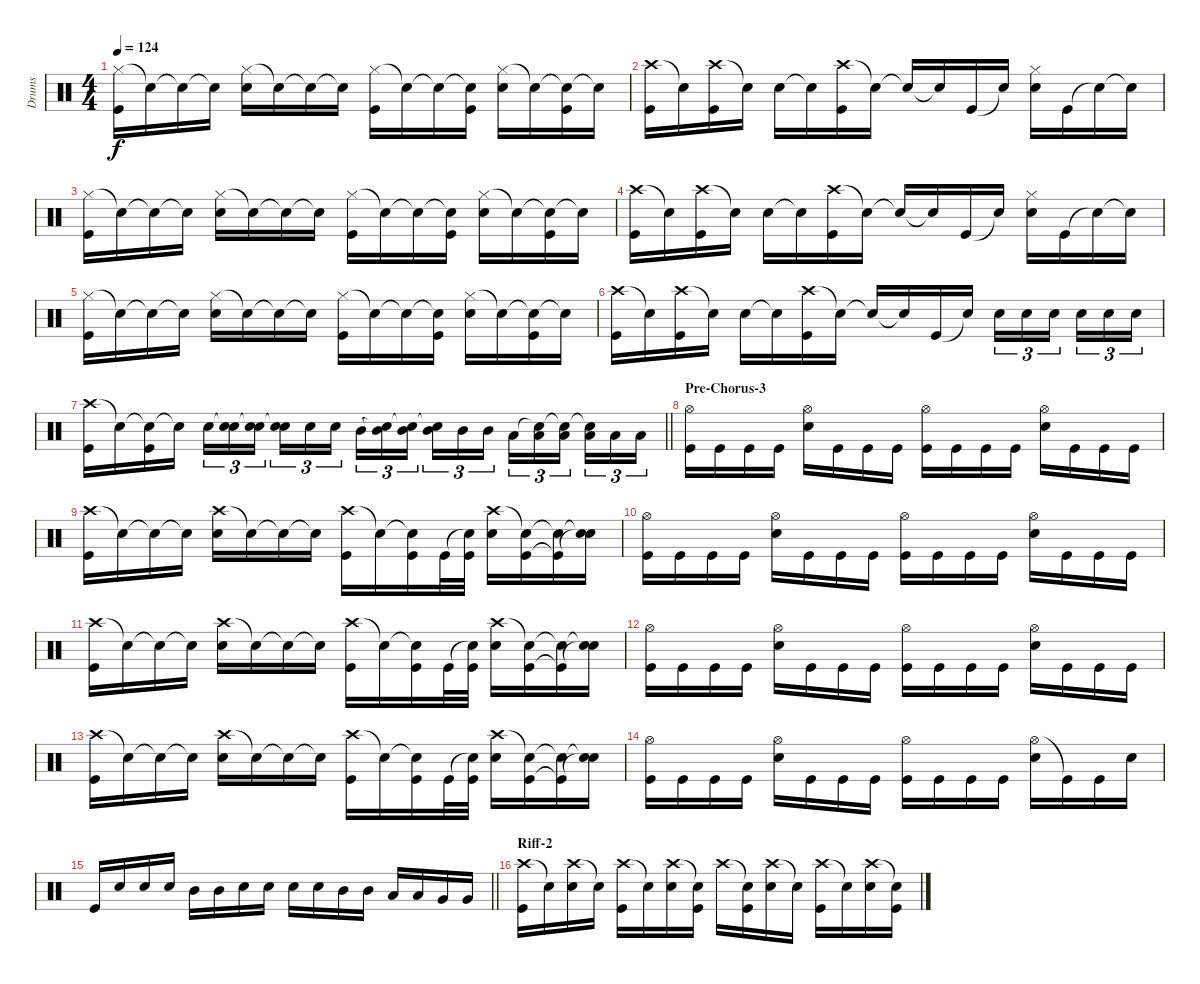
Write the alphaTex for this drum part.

\track ("Drums" "Drums") {instrument percussion}
\staff {score}
\articulation defaults
\ts (4 4)
\tempo 124
\clef neutral
\ks c
("Hi-Hat (closed)" "Kick (hit)").16{dy f} "Snare (hit)"{t}.16 "Snare (hit)"{t}.16 "Snare (hit)"{t}.16 ("Hi-Hat (closed)" "Electric Snare (hit)").16 "Snare (hit)"{t}.16 "Snare (hit)"{t}.16 "Snare (hit)"{t}.16 ("Hi-Hat (closed)" "Kick (hit)").16 "Snare (hit)"{t}.16 "Snare (hit)"{t}.16 ("Snare (hit)"{t} "Kick (hit)").16 ("Hi-Hat (closed)" "Electric Snare (hit)").16 "Snare (hit)"{t}.16 ("Snare (hit)"{t} "Kick (hit)").16 "Snare (hit)"{t}.16 |
("Crash high (hit)" "Kick (hit)").16 "Snare (hit)"{t}.16 ("Crash high (hit)" "Kick (hit)").16 "Snare (hit)"{t}.16 "Electric Snare (hit)".16 "Snare (hit)"{t}.16 ("Crash high (hit)" "Kick (hit)").16 "Snare (hit)"{t}.16 "Snare (hit)"{t}.16 "Snare (hit)"{t}.16 "Kick (hit)".16 "Snare (hit)"{t}.16 ("Hi-Hat (closed)" "Electric Snare (hit)").16 "Kick (hit)".16 "Snare (hit)"{t}.16 "Snare (hit)"{t}.16 |
("Hi-Hat (closed)" "Kick (hit)").16 "Snare (hit)"{t}.16 "Snare (hit)"{t}.16 "Snare (hit)"{t}.16 ("Hi-Hat (closed)" "Electric Snare (hit)").16 "Snare (hit)"{t}.16 "Snare (hit)"{t}.16 "Snare (hit)"{t}.16 ("Hi-Hat (closed)" "Kick (hit)").16 "Snare (hit)"{t}.16 "Snare (hit)"{t}.16 ("Snare (hit)"{t} "Kick (hit)").16 ("Hi-Hat (closed)" "Electric Snare (hit)").16 "Snare (hit)"{t}.16 ("Snare (hit)"{t} "Kick (hit)").16 "Snare (hit)"{t}.16 |
("Crash high (hit)" "Kick (hit)").16 "Snare (hit)"{t}.16 ("Crash high (hit)" "Kick (hit)").16 "Snare (hit)"{t}.16 "Electric Snare (hit)".16 "Snare (hit)"{t}.16 ("Crash high (hit)" "Kick (hit)").16 "Snare (hit)"{t}.16 "Snare (hit)"{t}.16 "Snare (hit)"{t}.16 "Kick (hit)".16 "Snare (hit)"{t}.16 ("Hi-Hat (closed)" "Electric Snare (hit)").16 "Kick (hit)".16 "Snare (hit)"{t}.16 "Snare (hit)"{t}.16 |
("Hi-Hat (closed)" "Kick (hit)").16 "Snare (hit)"{t}.16 "Snare (hit)"{t}.16 "Snare (hit)"{t}.16 ("Hi-Hat (closed)" "Electric Snare (hit)").16 "Snare (hit)"{t}.16 "Snare (hit)"{t}.16 "Snare (hit)"{t}.16 ("Hi-Hat (closed)" "Kick (hit)").16 "Snare (hit)"{t}.16 "Snare (hit)"{t}.16 ("Snare (hit)"{t} "Kick (hit)").16 ("Hi-Hat (closed)" "Electric Snare (hit)").16 "Snare (hit)"{t}.16 ("Snare (hit)"{t} "Kick (hit)").16 "Snare (hit)"{t}.16 |
("Crash high (hit)" "Kick (hit)").16 "Snare (hit)"{t}.16 ("Crash high (hit)" "Kick (hit)").16 "Snare (hit)"{t}.16 "Electric Snare (hit)".16 "Snare (hit)"{t}.16 ("Crash high (hit)" "Kick (hit)").16 "Snare (hit)"{t}.16 "Snare (hit)"{t}.16 "Snare (hit)"{t}.16 "Kick (hit)".16 "Snare (hit)"{t}.16 "Electric Snare (hit)".16{tu (3 2)} "Electric Snare (hit)".16{tu (3 2)} "Electric Snare (hit)".16{tu (3 2)} "Electric Snare (hit)".16{tu (3 2)} "Electric Snare (hit)".16{tu (3 2)} "Electric Snare (hit)".16{tu (3 2)} |
\barLineRight lightlight
("Crash high (hit)" "Kick (hit)").16 "Snare (hit)"{t}.16 ("Snare (hit)"{t} "Kick (hit)").16 "Snare (hit)"{t}.16 "Electric Snare (hit)".16{tu (3 2)} ("Snare (hit)"{t} "Electric Snare (hit)").16{tu (3 2)} ("Snare (hit)"{t} "Electric Snare (hit)").16{tu (3 2)} ("Snare (hit)"{t} "Electric Snare (hit)").16{tu (3 2)} "Electric Snare (hit)".16{tu (3 2)} "Electric Snare (hit)".16{tu (3 2)} "Mid Tom (hit)".16{tu (3 2)} ("Snare (hit)"{t} "Mid Tom (hit)").16{tu (3 2)} ("Snare (hit)"{t} "Mid Tom (hit)").16{tu (3 2)} ("Snare (hit)"{t} "Mid Tom (hit)").16{tu (3 2)} "Mid Tom (hit)".16{tu (3 2)} "Mid Tom (hit)".16{tu (3 2)} "Low Tom (hit)".16{tu (3 2)} ("Snare (hit)"{t} "Low Tom (hit)").16{tu (3 2)} ("Snare (hit)"{t} "Low Tom (hit)").16{tu (3 2)} ("Snare (hit)"{t} "Low Tom (hit)").16{tu (3 2)} "Low Tom (hit)".16{tu (3 2)} "Low Tom (hit)".16{tu (3 2)} |
\section ("" "Pre-Chorus-3")
("Hi-Hat (open)" "Kick (hit)").16 "Kick (hit)".16 "Kick (hit)".16 "Kick (hit)".16 ("Hi-Hat (open)" "Electric Snare (hit)").16 "Kick (hit)".16 "Kick (hit)".16 "Kick (hit)".16 ("Hi-Hat (open)" "Kick (hit)").16 "Kick (hit)".16 "Kick (hit)".16 "Kick (hit)".16 ("Hi-Hat (open)" "Electric Snare (hit)").16 "Kick (hit)".16 "Kick (hit)".16 "Kick (hit)".16 |
("Crash high (hit)" "Kick (hit)").16 "Snare (hit)"{t}.16 "Snare (hit)"{t}.16 "Snare (hit)"{t}.16 ("Crash high (hit)" "Electric Snare (hit)").16 "Snare (hit)"{t}.16 "Snare (hit)"{t}.16 "Snare (hit)"{t}.16 ("Crash high (hit)" "Kick (hit)").16 "Snare (hit)"{t}.16 ("Snare (hit)"{t} "Kick (hit)").16 "Kick (hit)".32 ("Snare (hit)"{t} "Kick (hit)").32 ("Crash high (hit)" "Electric Snare (hit)").16 ("Snare (hit)"{t} "Kick (hit)").16 ("Snare (hit)"{t} "Kick (hit)"{t}).16 ("Snare (hit)"{t} "Electric Snare (hit)"{t}).16 |
("Hi-Hat (open)" "Kick (hit)").16 "Kick (hit)".16 "Kick (hit)".16 "Kick (hit)".16 ("Hi-Hat (open)" "Electric Snare (hit)").16 "Kick (hit)".16 "Kick (hit)".16 "Kick (hit)".16 ("Hi-Hat (open)" "Kick (hit)").16 "Kick (hit)".16 "Kick (hit)".16 "Kick (hit)".16 ("Hi-Hat (open)" "Electric Snare (hit)").16 "Kick (hit)".16 "Kick (hit)".16 "Kick (hit)".16 |
("Crash high (hit)" "Kick (hit)").16 "Snare (hit)"{t}.16 "Snare (hit)"{t}.16 "Snare (hit)"{t}.16 ("Crash high (hit)" "Electric Snare (hit)").16 "Snare (hit)"{t}.16 "Snare (hit)"{t}.16 "Snare (hit)"{t}.16 ("Crash high (hit)" "Kick (hit)").16 "Snare (hit)"{t}.16 ("Snare (hit)"{t} "Kick (hit)").16 "Kick (hit)".32 ("Snare (hit)"{t} "Kick (hit)").32 ("Crash high (hit)" "Electric Snare (hit)").16 ("Snare (hit)"{t} "Kick (hit)").16 ("Snare (hit)"{t} "Kick (hit)"{t}).16 ("Snare (hit)"{t} "Electric Snare (hit)"{t}).16 |
("Hi-Hat (open)" "Kick (hit)").16 "Kick (hit)".16 "Kick (hit)".16 "Kick (hit)".16 ("Hi-Hat (open)" "Electric Snare (hit)").16 "Kick (hit)".16 "Kick (hit)".16 "Kick (hit)".16 ("Hi-Hat (open)" "Kick (hit)").16 "Kick (hit)".16 "Kick (hit)".16 "Kick (hit)".16 ("Hi-Hat (open)" "Electric Snare (hit)").16 "Kick (hit)".16 "Kick (hit)".16 "Kick (hit)".16 |
("Crash high (hit)" "Kick (hit)").16 "Snare (hit)"{t}.16 "Snare (hit)"{t}.16 "Snare (hit)"{t}.16 ("Crash high (hit)" "Electric Snare (hit)").16 "Snare (hit)"{t}.16 "Snare (hit)"{t}.16 "Snare (hit)"{t}.16 ("Crash high (hit)" "Kick (hit)").16 "Snare (hit)"{t}.16 ("Snare (hit)"{t} "Kick (hit)").16 "Kick (hit)".32 ("Snare (hit)"{t} "Kick (hit)").32 ("Crash high (hit)" "Electric Snare (hit)").16 ("Snare (hit)"{t} "Kick (hit)").16 ("Snare (hit)"{t} "Kick (hit)"{t}).16 ("Snare (hit)"{t} "Electric Snare (hit)"{t}).16 |
("Hi-Hat (open)" "Kick (hit)").16 "Kick (hit)".16 "Kick (hit)".16 "Kick (hit)".16 ("Hi-Hat (open)" "Electric Snare (hit)").16 "Kick (hit)".16 "Kick (hit)".16 "Kick (hit)".16 ("Hi-Hat (open)" "Kick (hit)").16 "Kick (hit)".16 "Kick (hit)".16 "Kick (hit)".16 ("Hi-Hat (open)" "Electric Snare (hit)").16 "Kick (hit)"{t}.16 "Kick (hit)".16 "Electric Snare (hit)".16 |
\barLineRight lightlight "Kick (hit)".16 "Electric Snare (hit)".16 "Electric Snare (hit)".16 "Electric Snare (hit)".16 "Mid Tom (hit)".16 "Mid Tom (hit)".16 "Electric Snare (hit)".16 "Electric Snare (hit)".16 "Electric Snare (hit)".16 "Electric Snare (hit)".16 "Mid Tom (hit)".16 "Mid Tom (hit)".16 "Low Tom (hit)".16 "Low Tom (hit)".16 "Very Low Tom (hit)".16 "Very Low Tom (hit)".16
|
\section ("" "Riff-2")
("Crash high (hit)" "Kick (hit)").16 "Snare (hit)"{t}.16 ("Crash high (hit)" "Electric Snare (hit)").16 "Snare (hit)"{t}.16 ("Crash high (hit)" "Kick (hit)").16 "Snare (hit)"{t}.16 ("Crash high (hit)" "Electric Snare (hit)").16 ("Snare (hit)"{t} "Kick (hit)").16 "Crash high (hit)".16 ("Snare (hit)"{t} "Kick (hit)").16 ("Crash high (hit)" "Electric Snare (hit)").16 "Snare (hit)"{t}.16 ("Crash high (hit)" "Kick (hit)").16 "Snare (hit)"{t}.16 ("Crash high (hit)" "Electric Snare (hit)").16 ("Snare (hit)"{t} "Kick (hit)").16
